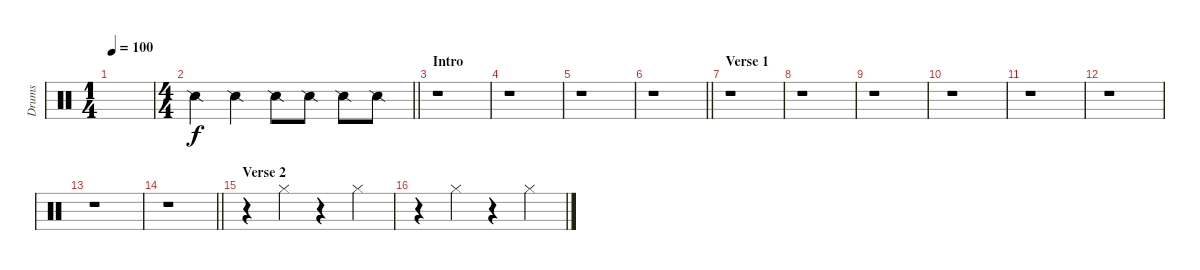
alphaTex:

\track ("Drums" "Drums") {instrument percussion}
\staff {score}
\articulation defaults
\ts (1 4)
\tempo 100
\clef neutral
\ks c
|
\ts (4 4)
\barLineRight lightlight "Snare (side stick) 2".4 "Snare (side stick) 2".4 "Snare (side stick) 2".8 "Snare (side stick) 2".8 "Snare (side stick) 2".8 "Snare (side stick) 2".8
|
\section ("" "Intro")
r.1 |
r.1 |
r.1 |
\barLineRight lightlight
r.1 |
\section ("" "Verse 1")
r.1 |
r.1 |
r.1 |
r.1 |
r.1 |
r.1 |
r.1 |
\barLineRight lightlight
r.1 |
\section ("" "Verse 2")
r.4 "Hi-Hat (closed)".4 r.4 "Hi-Hat (closed)".4 |
r.4 "Hi-Hat (closed)".4 r.4 "Hi-Hat (closed)".4
